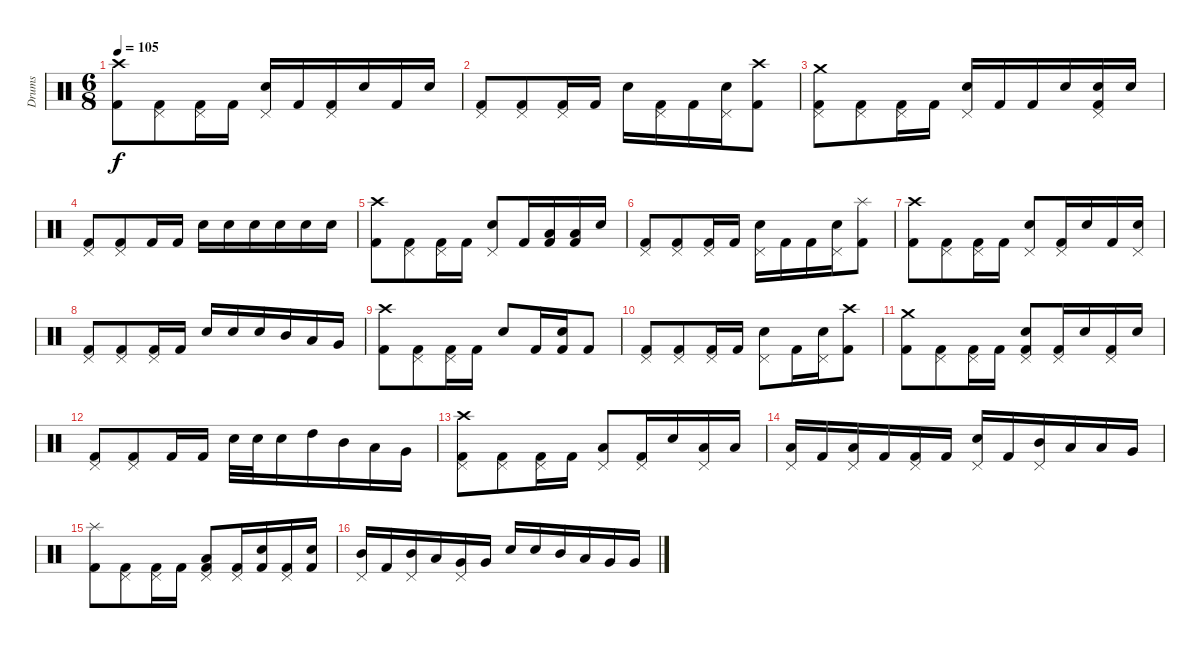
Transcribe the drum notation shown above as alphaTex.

\track ("Drums" "Drums") {instrument percussion}
\staff {score}
\articulation defaults
\ts (6 8)
\tempo 105
\clef neutral
\ks c
("Crash high (hit)" "Kick (hit) 2").8{dy f} ("Pedal Hi-Hat (hit)" "Kick (hit) 2").8 ("Pedal Hi-Hat (hit)" "Kick (hit) 2").16 "Kick (hit) 2".16 ("Pedal Hi-Hat (hit)" "Snare (hit) 2").16 "Kick (hit) 2".16 ("Pedal Hi-Hat (hit)" "Kick (hit) 2").16 "Snare (hit) 2".16 "Kick (hit) 2".16 "Snare (hit) 2".16 |
("Pedal Hi-Hat (hit)" "Kick (hit) 2").8 ("Pedal Hi-Hat (hit)" "Kick (hit) 2").8 ("Pedal Hi-Hat (hit)" "Kick (hit) 2").16 "Kick (hit) 2".16 "Snare (hit) 2".16 ("Pedal Hi-Hat (hit)" "Kick (hit) 2").16 "Kick (hit) 2".16 ("Snare (hit) 2" "Pedal Hi-Hat (hit)").16 ("Crash high (hit)" "Kick (hit) 2").8 |
("Crash medium (hit)" "Pedal Hi-Hat (hit)" "Kick (hit) 2").8 ("Pedal Hi-Hat (hit)" "Kick (hit) 2").8 ("Pedal Hi-Hat (hit)" "Kick (hit) 2").16 "Kick (hit) 2".16 ("Pedal Hi-Hat (hit)" "Snare (hit) 2").16 "Kick (hit) 2".16 "Kick (hit) 2".16 "Snare (hit) 2".16 ("Snare (hit) 2" "Pedal Hi-Hat (hit)" "Kick (hit) 2").16 "Snare (hit) 2".16 |
("Pedal Hi-Hat (hit)" "Kick (hit) 2").8 ("Pedal Hi-Hat (hit)" "Kick (hit) 2").8 "Kick (hit) 2".16 "Kick (hit) 2".16 "Snare (hit) 2".16 "Snare (hit) 2".16 "Snare (hit) 2".16 "Snare (hit) 2".16 "Snare (hit) 2".16 "Snare (hit) 2".16 |
("Crash high (hit)" "Kick (hit) 2").8 ("Pedal Hi-Hat (hit)" "Kick (hit) 2").8 ("Pedal Hi-Hat (hit)" "Kick (hit) 2").16 "Kick (hit) 2".16 ("Snare (hit) 2" "Pedal Hi-Hat (hit)").8 "Kick (hit) 2".16 ("Low Tom (hit)" "Kick (hit) 2").16 ("Low Tom (hit)" "Kick (hit) 2").16 "Snare (hit) 2".16 |
("Pedal Hi-Hat (hit)" "Kick (hit) 2").8 ("Pedal Hi-Hat (hit)" "Kick (hit) 2").8 ("Pedal Hi-Hat (hit)" "Kick (hit) 2").16 "Kick (hit) 2".16 ("Pedal Hi-Hat (hit)" "Snare (hit) 2").16 "Kick (hit) 2".16 "Kick (hit) 2".16 ("Snare (hit) 2" "Pedal Hi-Hat (hit)").16 ("Splash (hit)" "Kick (hit) 2").8 |
("Crash high (hit)" "Kick (hit) 2").8 ("Pedal Hi-Hat (hit)" "Kick (hit) 2").8 ("Pedal Hi-Hat (hit)" "Kick (hit) 2").16 "Kick (hit) 2".16 ("Snare (hit) 2" "Pedal Hi-Hat (hit)").8 ("Pedal Hi-Hat (hit)" "Kick (hit) 2").16 "Snare (hit) 2".16 "Kick (hit) 2".16 ("Snare (hit) 2" "Pedal Hi-Hat (hit)").16 |
("Pedal Hi-Hat (hit)" "Kick (hit) 2").8 ("Pedal Hi-Hat (hit)" "Kick (hit) 2").8 ("Pedal Hi-Hat (hit)" "Kick (hit) 2").16 "Kick (hit) 2".16 "Snare (hit) 2".16 "Snare (hit) 2".16 "Snare (hit) 2".16 "Mid Tom (hit)".16 "Low Tom (hit)".16 "Very Low Tom (hit)".16 |
("Crash high (hit)" "Kick (hit) 2").8 ("Pedal Hi-Hat (hit)" "Kick (hit) 2").8 ("Pedal Hi-Hat (hit)" "Kick (hit) 2").16 "Kick (hit) 2".16 "Snare (hit) 2".8 "Kick (hit) 2".16 ("Snare (hit) 2" "Kick (hit) 2").16 "Kick (hit) 2".8 |
("Pedal Hi-Hat (hit)" "Kick (hit) 2").8 ("Pedal Hi-Hat (hit)" "Kick (hit) 2").8 ("Pedal Hi-Hat (hit)" "Kick (hit) 2").16 "Kick (hit) 2".16 ("Snare (hit) 2" "Pedal Hi-Hat (hit)").8 "Kick (hit) 2".16 ("Snare (hit) 2" "Pedal Hi-Hat (hit)").16 ("Crash high (hit)" "Kick (hit) 2").8 |
("Crash medium (hit)" "Kick (hit) 2").8 ("Pedal Hi-Hat (hit)" "Kick (hit) 2").8 ("Pedal Hi-Hat (hit)" "Kick (hit) 2").16 "Kick (hit) 2".16 ("Snare (hit) 2" "Pedal Hi-Hat (hit)" "Kick (hit) 2").8 ("Pedal Hi-Hat (hit)" "Kick (hit) 2").16 "Snare (hit) 2".16 ("Pedal Hi-Hat (hit)" "Kick (hit) 2").16 "Snare (hit) 2".16 |
("Pedal Hi-Hat (hit)" "Kick (hit) 2").8 ("Pedal Hi-Hat (hit)" "Kick (hit) 2").8 "Kick (hit) 2".16 "Kick (hit) 2".16 "Snare (hit) 2".32 "Snare (hit) 2".32 "Snare (hit) 2".16 "High Tom (hit)".16 "Mid Tom (hit)".16 "Low Tom (hit)".16 "Very Low Tom (hit)".16 |
("Crash high (hit)" "Pedal Hi-Hat (hit)" "Kick (hit) 2").8 ("Pedal Hi-Hat (hit)" "Kick (hit) 2").8 ("Pedal Hi-Hat (hit)" "Kick (hit) 2").16 "Kick (hit) 2".16 ("Pedal Hi-Hat (hit)" "Low Tom (hit)").8 ("Pedal Hi-Hat (hit)" "Kick (hit) 2").16 "Snare (hit) 2".16 ("Low Tom (hit)" "Pedal Hi-Hat (hit)").16 "Low Tom (hit)".16 |
("Pedal Hi-Hat (hit)" "Low Tom (hit)").16 "Kick (hit) 2".16 ("Pedal Hi-Hat (hit)" "Low Tom (hit)").16 "Kick (hit) 2".16 ("Pedal Hi-Hat (hit)" "Kick (hit) 2").16 "Kick (hit) 2".16 ("Snare (hit) 2" "Pedal Hi-Hat (hit)").16 "Kick (hit) 2".16 ("Mid Tom (hit)" "Pedal Hi-Hat (hit)").16 "Low Tom (hit)".16 "Low Tom (hit)".16 "Very Low Tom (hit)".16 |
("Splash (hit)" "Kick (hit) 2").8 ("Pedal Hi-Hat (hit)" "Kick (hit) 2").8 ("Pedal Hi-Hat (hit)" "Kick (hit) 2").16 "Kick (hit) 2".16 ("Pedal Hi-Hat (hit)" "Low Tom (hit)" "Kick (hit) 2").8 ("Pedal Hi-Hat (hit)" "Kick (hit) 2").16 ("Snare (hit) 2" "Kick (hit) 2").16 ("Pedal Hi-Hat (hit)" "Kick (hit) 2").16 ("Snare (hit) 2" "Kick (hit) 2").16 |
("Mid Tom (hit)" "Pedal Hi-Hat (hit)").16 "Kick (hit) 2".16 ("Mid Tom (hit)" "Pedal Hi-Hat (hit)").16 "Low Tom (hit)".16 ("Very Low Tom (hit)" "Pedal Hi-Hat (hit)").16 "Very Low Tom (hit)".16 "Snare (hit) 2".16 "Snare (hit) 2".16 "Mid Tom (hit)".16 "Low Tom (hit)".16 "Very Low Tom (hit)".16 "Very Low Tom (hit)".16
